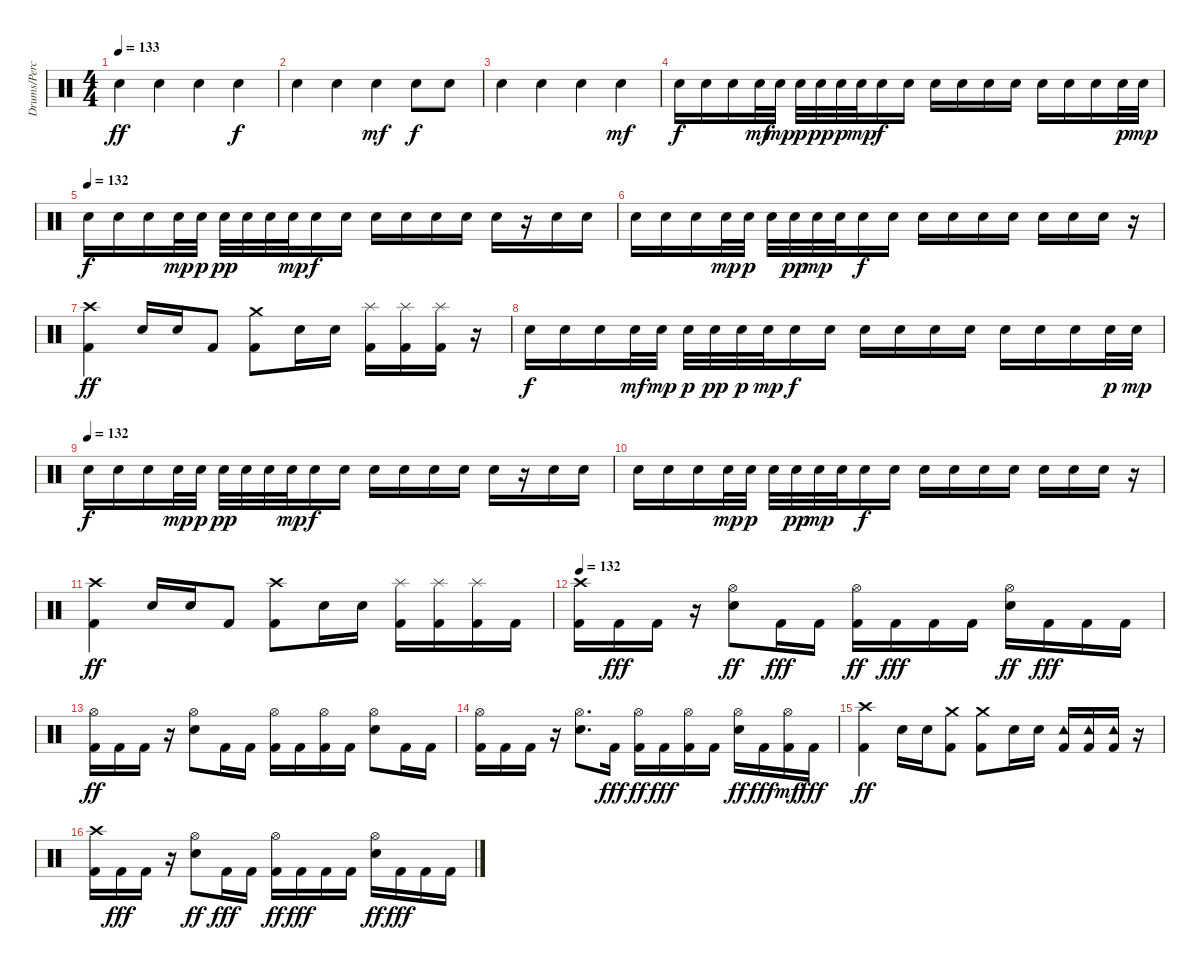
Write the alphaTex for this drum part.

\track ("Drums/Percussion" "Drums/Perc") {instrument percussion}
\staff {score}
\articulation defaults
\ts (4 4)
\tempo 133
\clef neutral
\ks c "Hand Clap (hit)".4{dy ff} "Hand Clap (hit)".4 "Hand Clap (hit)".4 "Hand Clap (hit)".4{dy f}
|
"Hand Clap (hit)".4 "Hand Clap (hit)".4 "Hand Clap (hit)".4{dy mf} "Hand Clap (hit)".8{dy f} "Hand Clap (hit)".8 |
"Hand Clap (hit)".4 "Hand Clap (hit)".4 "Hand Clap (hit)".4 "Hand Clap (hit)".4{dy mf} |
"Snare (hit) 2".16{dy f} "Snare (hit) 2".16 "Snare (hit) 2".16 "Snare (hit) 2".32{dy mf} "Snare (hit) 2".32{dy mp} "Snare (hit) 2".32{dy p} "Snare (hit) 2".32{dy pp} "Snare (hit) 2".32{dy p} "Snare (hit) 2".32{dy mp} "Snare (hit) 2".16{dy f} "Snare (hit) 2".16 "Snare (hit) 2".16 "Snare (hit) 2".16 "Snare (hit) 2".16 "Snare (hit) 2".16 "Snare (hit) 2".16 "Snare (hit) 2".16 "Snare (hit) 2".16 "Snare (hit) 2".32{dy p} "Snare (hit) 2".32{dy mp} |
\tempo (132)
"Snare (hit) 2".16{dy f} "Snare (hit) 2".16 "Snare (hit) 2".16 "Snare (hit) 2".32{dy mp} "Snare (hit) 2".32{dy p} "Snare (hit) 2".32{dy pp} "Snare (hit) 2".32 "Snare (hit) 2".32 "Snare (hit) 2".32{dy mp} "Snare (hit) 2".16{dy f} "Snare (hit) 2".16 "Snare (hit) 2".16 "Snare (hit) 2".16 "Snare (hit) 2".16 "Snare (hit) 2".16 "Snare (hit) 2".16 r.16 "Snare (hit) 2".16 "Snare (hit) 2".16 |
"Snare (hit) 2".16 "Snare (hit) 2".16 "Snare (hit) 2".16 "Snare (hit) 2".32{dy mp} "Snare (hit) 2".32{dy p} "Snare (hit) 2".32 "Snare (hit) 2".32{dy pp} "Snare (hit) 2".32{dy mp} "Snare (hit) 2".32 "Snare (hit) 2".16{dy f} "Snare (hit) 2".16 "Snare (hit) 2".16 "Snare (hit) 2".16 "Snare (hit) 2".16 "Snare (hit) 2".16 "Snare (hit) 2".16 "Snare (hit) 2".16 "Snare (hit) 2".16 r.16 |
("Kick (hit) 2" "Crash high (hit)").4{dy ff} "Snare (hit) 2".16 "Snare (hit) 2".16 "Kick (hit) 2".8 ("Kick (hit) 2" "Crash medium (hit)").8 "Snare (hit) 2".16 "Snare (hit) 2".16 ("Kick (hit) 2" "Splash (hit)").16 ("Kick (hit) 2" "Splash (hit)").16 ("Kick (hit) 2" "Splash (hit)").16 r.16 |
"Snare (hit) 2".16{dy f} "Snare (hit) 2".16 "Snare (hit) 2".16 "Snare (hit) 2".32{dy mf} "Snare (hit) 2".32{dy mp} "Snare (hit) 2".32{dy p} "Snare (hit) 2".32{dy pp} "Snare (hit) 2".32{dy p} "Snare (hit) 2".32{dy mp} "Snare (hit) 2".16{dy f} "Snare (hit) 2".16 "Snare (hit) 2".16 "Snare (hit) 2".16 "Snare (hit) 2".16 "Snare (hit) 2".16 "Snare (hit) 2".16 "Snare (hit) 2".16 "Snare (hit) 2".16 "Snare (hit) 2".32{dy p} "Snare (hit) 2".32{dy mp} |
\tempo (132)
"Snare (hit) 2".16{dy f} "Snare (hit) 2".16 "Snare (hit) 2".16 "Snare (hit) 2".32{dy mp} "Snare (hit) 2".32{dy p} "Snare (hit) 2".32{dy pp} "Snare (hit) 2".32 "Snare (hit) 2".32 "Snare (hit) 2".32{dy mp} "Snare (hit) 2".16{dy f} "Snare (hit) 2".16 "Snare (hit) 2".16 "Snare (hit) 2".16 "Snare (hit) 2".16 "Snare (hit) 2".16 "Snare (hit) 2".16 r.16 "Snare (hit) 2".16 "Snare (hit) 2".16 |
"Snare (hit) 2".16 "Snare (hit) 2".16 "Snare (hit) 2".16 "Snare (hit) 2".32{dy mp} "Snare (hit) 2".32{dy p} "Snare (hit) 2".32 "Snare (hit) 2".32{dy pp} "Snare (hit) 2".32{dy mp} "Snare (hit) 2".32 "Snare (hit) 2".16{dy f} "Snare (hit) 2".16 "Snare (hit) 2".16 "Snare (hit) 2".16 "Snare (hit) 2".16 "Snare (hit) 2".16 "Snare (hit) 2".16 "Snare (hit) 2".16 "Snare (hit) 2".16 r.16 |
("Kick (hit) 2" "Crash high (hit)").4{dy ff} "Snare (hit) 2".16 "Snare (hit) 2".16 "Kick (hit) 2".8 ("Kick (hit) 2" "Crash high (hit)").8 "Snare (hit) 2".16 "Snare (hit) 2".16 ("Kick (hit) 2" "Splash (hit)").16 ("Kick (hit) 2" "Splash (hit)").16 ("Kick (hit) 2" "Splash (hit)").16 "Kick (hit) 2".16 |
\tempo 132
("Kick (hit) 2" "Crash high (hit)").16 "Kick (hit) 2".16{dy fff} "Kick (hit) 2".16 r.16 ("Snare (hit) 2" "Hi-Hat (open)").8{dy ff} "Kick (hit) 2".16{dy fff} "Kick (hit) 2".16 ("Kick (hit) 2" "Hi-Hat (open)").16{dy ff} "Kick (hit) 2".16{dy fff} "Kick (hit) 2".16 "Kick (hit) 2".16 ("Snare (hit) 2" "Hi-Hat (open)").16{dy ff} "Kick (hit) 2".16{dy fff} "Kick (hit) 2".16 "Kick (hit) 2".16 |
("Kick (hit) 2" "Hi-Hat (open)").16{dy ff} "Kick (hit) 2".16 "Kick (hit) 2".16 r.16 ("Snare (hit) 2" "Hi-Hat (open)").8 "Kick (hit) 2".16 "Kick (hit) 2".16 ("Kick (hit) 2" "Hi-Hat (open)").16 "Kick (hit) 2".16 ("Kick (hit) 2" "Hi-Hat (open)").16 "Kick (hit) 2".16 ("Snare (hit) 2" "Hi-Hat (open)").8 "Kick (hit) 2".16 "Kick (hit) 2".16 |
("Kick (hit) 2" "Hi-Hat (open)").16 "Kick (hit) 2".16 "Kick (hit) 2".16 r.16 ("Snare (hit) 2" "Hi-Hat (open)").8{d} "Kick (hit) 2".16{dy fff} ("Kick (hit) 2" "Hi-Hat (open)").16{dy ff} "Kick (hit) 2".16{dy fff} ("Kick (hit) 2" "Hi-Hat (open)").16 "Kick (hit) 2".16 ("Snare (hit) 2" "Hi-Hat (open)").16{dy ff} "Kick (hit) 2".16{dy fff} ("Kick (hit) 2" "Hi-Hat (open)").16{dy mf} "Kick (hit) 2".16{dy fff} |
("Kick (hit) 2" "Crash high (hit)").4{dy ff} "Snare (hit) 2".16 "Snare (hit) 2".16 ("Kick (hit) 2" "Crash medium (hit)").8 ("Kick (hit) 2" "Crash medium (hit)").8 "Snare (hit) 2".16 "Snare (hit) 2".16 ("Kick (hit) 2" "Tambourine (hit)").16 ("Kick (hit) 2" "Tambourine (hit)").16 ("Kick (hit) 2" "Tambourine (hit)").16 r.16 |
("Kick (hit) 2" "Crash high (hit)").16 "Kick (hit) 2".16{dy fff} "Kick (hit) 2".16 r.16 ("Snare (hit) 2" "Hi-Hat (open)").8{dy ff} "Kick (hit) 2".16{dy fff} "Kick (hit) 2".16 ("Kick (hit) 2" "Hi-Hat (open)").16{dy ff} "Kick (hit) 2".16{dy fff} "Kick (hit) 2".16 "Kick (hit) 2".16 ("Snare (hit) 2" "Hi-Hat (open)").16{dy ff} "Kick (hit) 2".16{dy fff} "Kick (hit) 2".16 "Kick (hit) 2".16
